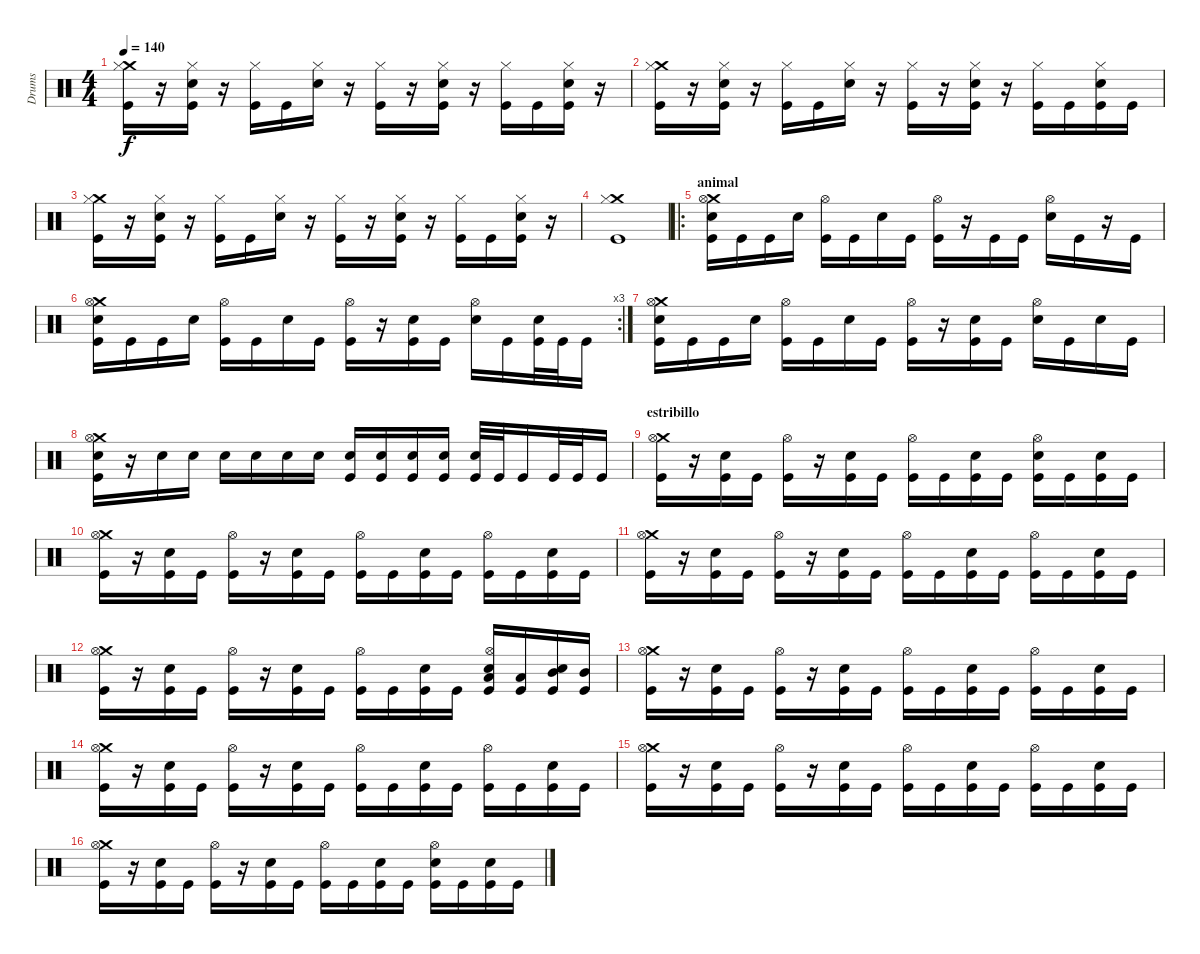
\track ("Drums" "Drums") {instrument percussion}
\staff {score}
\articulation defaults
\ts (4 4)
\tempo 140
\clef neutral
\ks c
("Crash medium (hit)" "Hi-Hat (closed)" "Kick (hit)").16{dy f} r.16 ("Hi-Hat (closed)" "Electric Snare (hit)" "Kick (hit)").16 r.16 ("Hi-Hat (closed)" "Kick (hit)").16 "Kick (hit)".16 ("Hi-Hat (closed)" "Electric Snare (hit)").16 r.16 ("Hi-Hat (closed)" "Kick (hit)").16 r.16 ("Hi-Hat (closed)" "Electric Snare (hit)" "Kick (hit)").16 r.16 ("Hi-Hat (closed)" "Kick (hit)").16 "Kick (hit)".16 ("Hi-Hat (closed)" "Electric Snare (hit)" "Kick (hit)").16 r.16 |
("Crash medium (hit)" "Hi-Hat (closed)" "Kick (hit)").16 r.16 ("Hi-Hat (closed)" "Electric Snare (hit)" "Kick (hit)").16 r.16 ("Hi-Hat (closed)" "Kick (hit)").16 "Kick (hit)".16 ("Hi-Hat (closed)" "Electric Snare (hit)").16 r.16 ("Hi-Hat (closed)" "Kick (hit)").16 r.16 ("Hi-Hat (closed)" "Electric Snare (hit)" "Kick (hit)").16 r.16 ("Hi-Hat (closed)" "Kick (hit)").16 "Kick (hit)".16 ("Hi-Hat (closed)" "Electric Snare (hit)" "Kick (hit)").16 "Kick (hit)".16 |
("Crash medium (hit)" "Hi-Hat (closed)" "Kick (hit)").16 r.16 ("Hi-Hat (closed)" "Electric Snare (hit)" "Kick (hit)").16 r.16 ("Hi-Hat (closed)" "Kick (hit)").16 "Kick (hit)".16 ("Hi-Hat (closed)" "Electric Snare (hit)").16 r.16 ("Hi-Hat (closed)" "Kick (hit)").16 r.16 ("Hi-Hat (closed)" "Electric Snare (hit)" "Kick (hit)").16 r.16 ("Hi-Hat (closed)" "Kick (hit)").16 "Kick (hit)".16 ("Hi-Hat (closed)" "Electric Snare (hit)" "Kick (hit)").16 r.16 |
("Crash medium (hit)" "Hi-Hat (closed)" "Kick (hit)").1 |
\ro
\section ("" "animal")
("Crash medium (hit)" "Hi-Hat (open)" "Electric Snare (hit)" "Kick (hit)").16 "Kick (hit)".16 "Kick (hit)".16 "Electric Snare (hit)".16 ("Hi-Hat (open)" "Kick (hit)").16 "Kick (hit)".16 "Electric Snare (hit)".16 "Kick (hit)".16 ("Hi-Hat (open)" "Kick (hit)").16 r.16 "Kick (hit)".16 "Kick (hit)".16 ("Hi-Hat (open)" "Electric Snare (hit)").16 "Kick (hit)".16 r.16 "Kick (hit)".16 |
\rc 3
("Crash medium (hit)" "Hi-Hat (open)" "Electric Snare (hit)" "Kick (hit)").16 "Kick (hit)".16 "Kick (hit)".16 "Electric Snare (hit)".16 ("Hi-Hat (open)" "Kick (hit)").16 "Kick (hit)".16 "Electric Snare (hit)".16 "Kick (hit)".16 ("Hi-Hat (open)" "Kick (hit)").16 r.16 ("Electric Snare (hit)" "Kick (hit)").16 "Kick (hit)".16 ("Hi-Hat (open)" "Electric Snare (hit)").16 "Kick (hit)".16 ("Electric Snare (hit)" "Kick (hit)").32 "Kick (hit)".32 "Kick (hit)".16 |
("Crash medium (hit)" "Hi-Hat (open)" "Electric Snare (hit)" "Kick (hit)").16 "Kick (hit)".16 "Kick (hit)".16 "Electric Snare (hit)".16 ("Hi-Hat (open)" "Kick (hit)").16 "Kick (hit)".16 "Electric Snare (hit)".16 "Kick (hit)".16 ("Hi-Hat (open)" "Kick (hit)").16 r.16 ("Electric Snare (hit)" "Kick (hit)").16 "Kick (hit)".16 ("Hi-Hat (open)" "Electric Snare (hit)").16 "Kick (hit)".16 "Electric Snare (hit)".16 "Kick (hit)".16 |
("Crash medium (hit)" "Hi-Hat (open)" "Electric Snare (hit)" "Kick (hit)").16 r.16 "Electric Snare (hit)".16 "Electric Snare (hit)".16 "Electric Snare (hit)".16 "Electric Snare (hit)".16 "Electric Snare (hit)".16 "Electric Snare (hit)".16 ("Electric Snare (hit)" "Kick (hit)").16 ("Electric Snare (hit)" "Kick (hit)").16 ("Electric Snare (hit)" "Kick (hit)").16 ("Electric Snare (hit)" "Kick (hit)").16 ("Electric Snare (hit)" "Kick (hit)").32 "Kick (hit)".32 "Kick (hit)".16 "Kick (hit)".32 "Kick (hit)".32 "Kick (hit)".16 |
\section ("" "estribillo")
("Crash medium (hit)" "Hi-Hat (open)" "Kick (hit)").16 r.16 ("Electric Snare (hit)" "Kick (hit)").16 "Kick (hit)".16 ("Hi-Hat (open)" "Kick (hit)").16 r.16 ("Electric Snare (hit)" "Kick (hit)").16 "Kick (hit)".16 ("Hi-Hat (open)" "Kick (hit)").16 "Kick (hit)".16 ("Electric Snare (hit)" "Kick (hit)").16 "Kick (hit)".16 ("Hi-Hat (open)" "Electric Snare (hit)" "Kick (hit)").16 "Kick (hit)".16 ("Electric Snare (hit)" "Kick (hit)").16 "Kick (hit)".16 |
("Crash medium (hit)" "Hi-Hat (open)" "Kick (hit)").16 r.16 ("Electric Snare (hit)" "Kick (hit)").16 "Kick (hit)".16 ("Hi-Hat (open)" "Kick (hit)").16 r.16 ("Electric Snare (hit)" "Kick (hit)").16 "Kick (hit)".16 ("Hi-Hat (open)" "Kick (hit)").16 "Kick (hit)".16 ("Electric Snare (hit)" "Kick (hit)").16 "Kick (hit)".16 ("Hi-Hat (open)" "Kick (hit)").16 "Kick (hit)".16 ("Electric Snare (hit)" "Kick (hit)").16 "Kick (hit)".16 |
("Crash medium (hit)" "Hi-Hat (open)" "Kick (hit)").16 r.16 ("Electric Snare (hit)" "Kick (hit)").16 "Kick (hit)".16 ("Hi-Hat (open)" "Kick (hit)").16 r.16 ("Electric Snare (hit)" "Kick (hit)").16 "Kick (hit)".16 ("Hi-Hat (open)" "Kick (hit)").16 "Kick (hit)".16 ("Electric Snare (hit)" "Kick (hit)").16 "Kick (hit)".16 ("Hi-Hat (open)" "Kick (hit)").16 "Kick (hit)".16 ("Electric Snare (hit)" "Kick (hit)").16 "Kick (hit)".16 |
("Crash medium (hit)" "Hi-Hat (open)" "Kick (hit)").16 r.16 ("Electric Snare (hit)" "Kick (hit)").16 "Kick (hit)".16 ("Hi-Hat (open)" "Kick (hit)").16 r.16 ("Electric Snare (hit)" "Kick (hit)").16 "Kick (hit)".16 ("Hi-Hat (open)" "Kick (hit)").16 "Kick (hit)".16 ("Electric Snare (hit)" "Kick (hit)").16 "Kick (hit)".16 ("Low Tom (hit)" "Hi-Hat (open)" "Electric Snare (hit)" "Kick (hit)").16 ("Low Tom (hit)" "Kick (hit)").16 ("Mid Tom (hit)" "Electric Snare (hit)" "Kick (hit)").16 ("Mid Tom (hit)" "Kick (hit)").16 |
("Crash medium (hit)" "Hi-Hat (open)" "Kick (hit)").16 r.16 ("Electric Snare (hit)" "Kick (hit)").16 "Kick (hit)".16 ("Hi-Hat (open)" "Kick (hit)").16 r.16 ("Electric Snare (hit)" "Kick (hit)").16 "Kick (hit)".16 ("Hi-Hat (open)" "Kick (hit)").16 "Kick (hit)".16 ("Electric Snare (hit)" "Kick (hit)").16 "Kick (hit)".16 ("Hi-Hat (open)" "Kick (hit)").16 "Kick (hit)".16 ("Electric Snare (hit)" "Kick (hit)").16 "Kick (hit)".16 |
("Crash medium (hit)" "Hi-Hat (open)" "Kick (hit)").16 r.16 ("Electric Snare (hit)" "Kick (hit)").16 "Kick (hit)".16 ("Hi-Hat (open)" "Kick (hit)").16 r.16 ("Electric Snare (hit)" "Kick (hit)").16 "Kick (hit)".16 ("Hi-Hat (open)" "Kick (hit)").16 "Kick (hit)".16 ("Electric Snare (hit)" "Kick (hit)").16 "Kick (hit)".16 ("Hi-Hat (open)" "Kick (hit)").16 "Kick (hit)".16 ("Electric Snare (hit)" "Kick (hit)").16 "Kick (hit)".16 |
("Crash medium (hit)" "Hi-Hat (open)" "Kick (hit)").16 r.16 ("Electric Snare (hit)" "Kick (hit)").16 "Kick (hit)".16 ("Hi-Hat (open)" "Kick (hit)").16 r.16 ("Electric Snare (hit)" "Kick (hit)").16 "Kick (hit)".16 ("Hi-Hat (open)" "Kick (hit)").16 "Kick (hit)".16 ("Electric Snare (hit)" "Kick (hit)").16 "Kick (hit)".16 ("Hi-Hat (open)" "Kick (hit)").16 "Kick (hit)".16 ("Electric Snare (hit)" "Kick (hit)").16 "Kick (hit)".16 |
("Crash medium (hit)" "Hi-Hat (open)" "Kick (hit)").16 r.16 ("Electric Snare (hit)" "Kick (hit)").16 "Kick (hit)".16 ("Hi-Hat (open)" "Kick (hit)").16 r.16 ("Electric Snare (hit)" "Kick (hit)").16 "Kick (hit)".16 ("Hi-Hat (open)" "Kick (hit)").16 "Kick (hit)".16 ("Electric Snare (hit)" "Kick (hit)").16 "Kick (hit)".16 ("Hi-Hat (open)" "Electric Snare (hit)" "Kick (hit)").16 "Kick (hit)".16 ("Electric Snare (hit)" "Kick (hit)").16 "Kick (hit)".16
